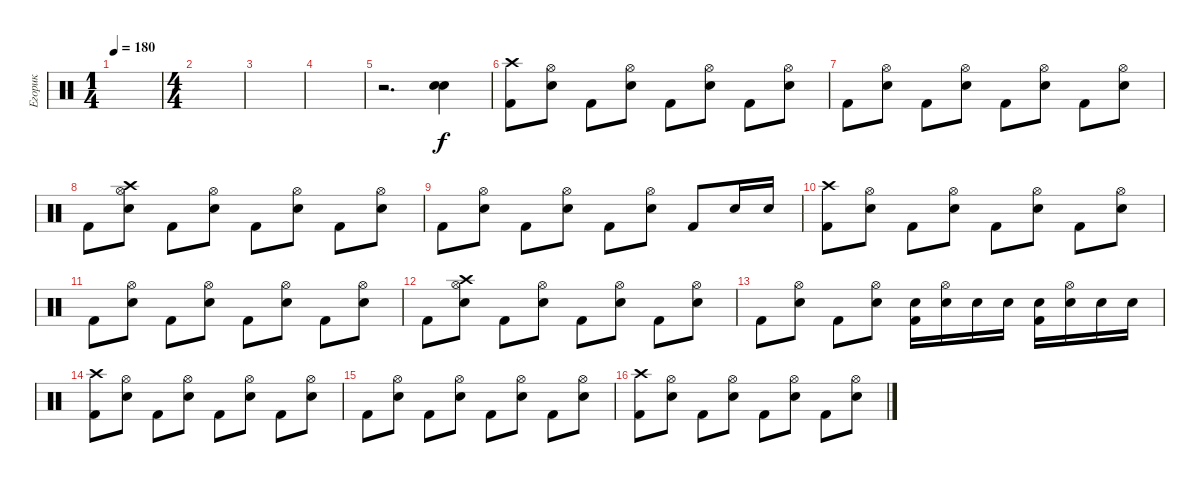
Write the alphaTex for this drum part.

\track ("Егорик" "Егорик") {instrument percussion}
\staff {score}
\articulation defaults
\ts (1 4)
\tempo 180
\clef neutral
\ks c
|
\ts (4 4)
|
|
|
r.2{d} ("Electric Snare (hit)" "Electric Snare (hit)").4{bd 240} |
("Crash high (hit)" "Kick (hit) 2").8 ("Hi-Hat (open)" "Electric Snare (hit)").8 "Kick (hit) 2".8 ("Hi-Hat (open)" "Electric Snare (hit)").8 "Kick (hit) 2".8 ("Hi-Hat (open)" "Electric Snare (hit)").8 "Kick (hit) 2".8 ("Hi-Hat (open)" "Electric Snare (hit)").8 |
"Kick (hit) 2".8 ("Hi-Hat (open)" "Electric Snare (hit)").8 "Kick (hit) 2".8 ("Hi-Hat (open)" "Electric Snare (hit)").8 "Kick (hit) 2".8 ("Hi-Hat (open)" "Electric Snare (hit)").8 "Kick (hit) 2".8 ("Hi-Hat (open)" "Electric Snare (hit)").8 |
"Kick (hit) 2".8 ("Crash high (hit)" "Hi-Hat (open)" "Electric Snare (hit)").8 "Kick (hit) 2".8 ("Hi-Hat (open)" "Electric Snare (hit)").8 "Kick (hit) 2".8 ("Hi-Hat (open)" "Electric Snare (hit)").8 "Kick (hit) 2".8 ("Hi-Hat (open)" "Electric Snare (hit)").8 |
"Kick (hit) 2".8 ("Hi-Hat (open)" "Electric Snare (hit)").8 "Kick (hit) 2".8 ("Hi-Hat (open)" "Electric Snare (hit)").8 "Kick (hit) 2".8 ("Hi-Hat (open)" "Electric Snare (hit)").8 "Kick (hit) 2".8 "Electric Snare (hit)".16 "Electric Snare (hit)".16 |
("Crash high (hit)" "Kick (hit) 2").8 ("Hi-Hat (open)" "Electric Snare (hit)").8 "Kick (hit) 2".8 ("Hi-Hat (open)" "Electric Snare (hit)").8 "Kick (hit) 2".8 ("Hi-Hat (open)" "Electric Snare (hit)").8 "Kick (hit) 2".8 ("Hi-Hat (open)" "Electric Snare (hit)").8 |
"Kick (hit) 2".8 ("Hi-Hat (open)" "Electric Snare (hit)").8 "Kick (hit) 2".8 ("Hi-Hat (open)" "Electric Snare (hit)").8 "Kick (hit) 2".8 ("Hi-Hat (open)" "Electric Snare (hit)").8 "Kick (hit) 2".8 ("Hi-Hat (open)" "Electric Snare (hit)").8 |
"Kick (hit) 2".8 ("Crash high (hit)" "Hi-Hat (open)" "Electric Snare (hit)").8 "Kick (hit) 2".8 ("Hi-Hat (open)" "Electric Snare (hit)").8 "Kick (hit) 2".8 ("Hi-Hat (open)" "Electric Snare (hit)").8 "Kick (hit) 2".8 ("Hi-Hat (open)" "Electric Snare (hit)").8 |
"Kick (hit) 2".8 ("Hi-Hat (open)" "Electric Snare (hit)").8 "Kick (hit) 2".8 ("Hi-Hat (open)" "Electric Snare (hit)").8 ("Electric Snare (hit)" "Kick (hit) 2").16 ("Hi-Hat (open)" "Electric Snare (hit)").16 "Electric Snare (hit)".16 "Electric Snare (hit)".16 ("Electric Snare (hit)" "Kick (hit) 2").16 ("Hi-Hat (open)" "Electric Snare (hit)").16 "Electric Snare (hit)".16 "Electric Snare (hit)".16 |
("Crash high (hit)" "Kick (hit) 2").8 ("Hi-Hat (open)" "Electric Snare (hit)").8 "Kick (hit) 2".8 ("Hi-Hat (open)" "Electric Snare (hit)").8 "Kick (hit) 2".8 ("Hi-Hat (open)" "Electric Snare (hit)").8 "Kick (hit) 2".8 ("Hi-Hat (open)" "Electric Snare (hit)").8 |
"Kick (hit) 2".8 ("Hi-Hat (open)" "Electric Snare (hit)").8 "Kick (hit) 2".8 ("Hi-Hat (open)" "Electric Snare (hit)").8 "Kick (hit) 2".8 ("Hi-Hat (open)" "Electric Snare (hit)").8 "Kick (hit) 2".8 ("Hi-Hat (open)" "Electric Snare (hit)").8 |
("Crash high (hit)" "Kick (hit) 2").8 ("Hi-Hat (open)" "Electric Snare (hit)").8 "Kick (hit) 2".8 ("Hi-Hat (open)" "Electric Snare (hit)").8 "Kick (hit) 2".8 ("Hi-Hat (open)" "Electric Snare (hit)").8 "Kick (hit) 2".8 ("Hi-Hat (open)" "Electric Snare (hit)").8
